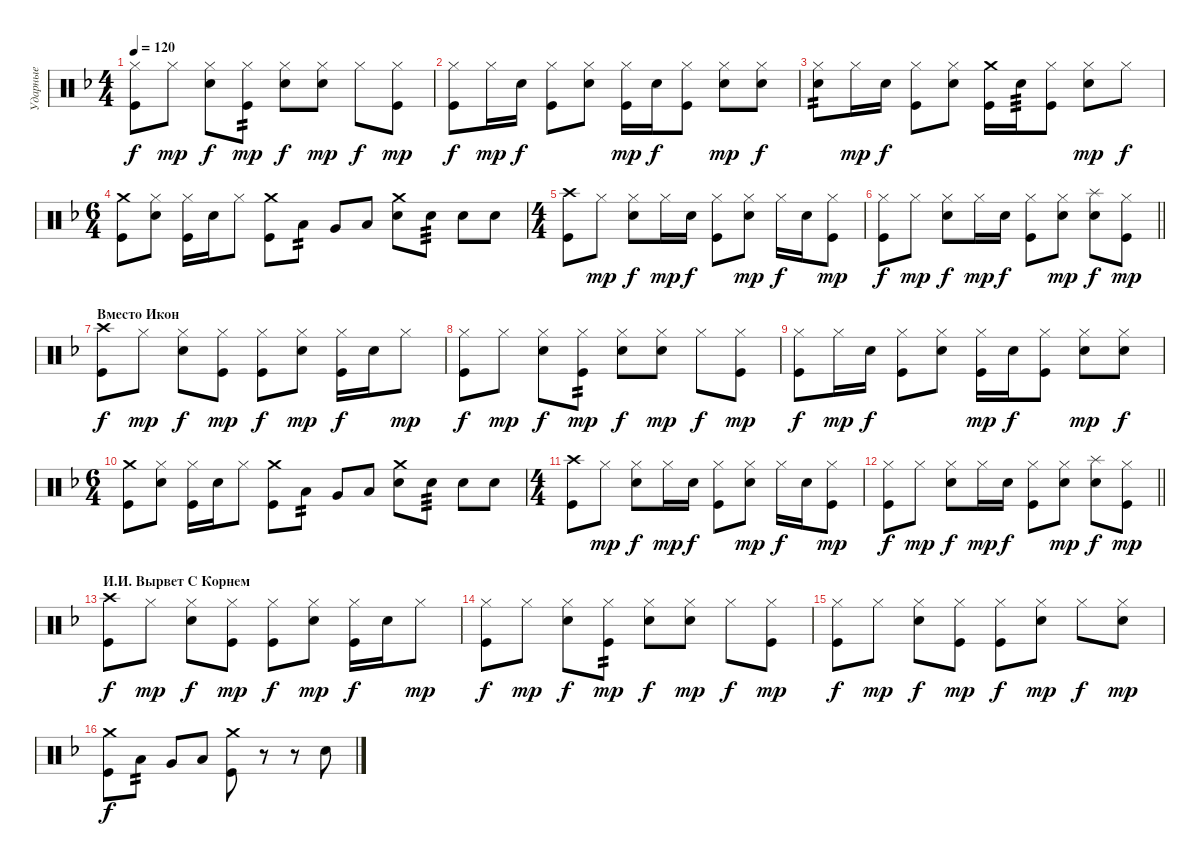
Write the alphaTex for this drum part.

\track ("Ударные" "Ударные") {instrument percussion}
\staff {score}
\articulation defaults
\ts (4 4)
\tempo 120
\clef neutral
\ks dminor
("Hi-Hat (closed)" "Kick (hit)").8{dy f} "Hi-Hat (closed)".8{dy mp} ("Hi-Hat (closed)" "Snare (hit) 2").8{dy f} ("Hi-Hat (closed)" "Kick (hit)").8{tp 2 dy mp} ("Hi-Hat (closed)" "Snare (hit) 2").8{dy f} ("Hi-Hat (closed)" "Snare (hit) 2").8{dy mp} "Hi-Hat (closed)".8{dy f} ("Hi-Hat (closed)" "Kick (hit)").8{dy mp} |
("Hi-Hat (closed)" "Kick (hit)").8{dy f} "Hi-Hat (closed)".16{dy mp} "Snare (hit) 2".16{dy f} ("Hi-Hat (closed)" "Kick (hit)").8 ("Hi-Hat (closed)" "Snare (hit) 2").8 ("Hi-Hat (closed)" "Kick (hit)").16{dy mp} "Snare (hit) 2".16{dy f} ("Hi-Hat (closed)" "Kick (hit)").8 ("Hi-Hat (closed)" "Snare (hit) 2").8{dy mp} ("Hi-Hat (closed)" "Snare (hit) 2").8{dy f} |
("Hi-Hat (closed)" "Snare (hit) 2").8{tp 2} "Hi-Hat (closed)".16{dy mp} "Snare (hit) 2".16{dy f} ("Hi-Hat (closed)" "Kick (hit)").8 ("Hi-Hat (closed)" "Snare (hit) 2").8 ("Crash medium (hit)" "Kick (hit)").16 "Snare (hit) 2".16{tp 3} ("Hi-Hat (closed)" "Kick (hit)").8 ("Hi-Hat (closed)" "Snare (hit) 2").8{dy mp} "Hi-Hat (closed)".8{dy f} |
\ts (6 4)
("Crash medium (hit)" "Kick (hit)").8 ("Hi-Hat (closed)" "Snare (hit) 2").8 ("Hi-Hat (closed)" "Kick (hit)").16 "Snare (hit) 2".16 "Hi-Hat (closed)".8 ("Crash medium (hit)" "Kick (hit)").8 "Low Tom (hit)".8{tp 2} "Very Low Tom (hit)".8 "Low Floor Tom (hit)".8 ("Crash medium (hit)" "Snare (hit) 2").8 "Snare (hit) 2".8{tp 3} "Snare (hit) 2".8 "Snare (hit) 2".8 |
\ts (4 4)
("Crash high (hit)" "Kick (hit)").8 "Hi-Hat (closed)".8{dy mp} ("Hi-Hat (closed)" "Snare (hit) 2").8{dy f} "Hi-Hat (closed)".16{dy mp} "Snare (hit) 2".16{dy f} ("Hi-Hat (closed)" "Kick (hit)").8 ("Hi-Hat (closed)" "Snare (hit) 2").8{dy mp} "Hi-Hat (closed)".16{dy f} "Snare (hit) 2".16 ("Hi-Hat (closed)" "Kick (hit)").8{dy mp} |
\barLineRight lightlight
("Hi-Hat (closed)" "Kick (hit)").8{dy f} "Hi-Hat (closed)".8{dy mp} ("Hi-Hat (closed)" "Snare (hit) 2").8{dy f} "Hi-Hat (closed)".16{dy mp} "Snare (hit) 2".16{dy f} ("Hi-Hat (closed)" "Kick (hit)").8 ("Hi-Hat (closed)" "Snare (hit) 2").8{dy mp} ("Splash (hit)" "Snare (hit) 2").8{dy f} ("Hi-Hat (closed)" "Kick (hit)").8{dy mp} |
\section ("" "Вместо Икон")
("Crash high (hit)" "Kick (hit)").8{dy f} "Hi-Hat (closed)".8{dy mp} ("Hi-Hat (closed)" "Snare (hit) 2").8{dy f} ("Hi-Hat (closed)" "Kick (hit)").8{dy mp} ("Hi-Hat (closed)" "Kick (hit)").8{dy f} ("Hi-Hat (closed)" "Snare (hit) 2").8{dy mp} ("Hi-Hat (closed)" "Kick (hit)").16{dy f} "Snare (hit) 2".16 "Hi-Hat (closed)".8{dy mp} |
("Hi-Hat (closed)" "Kick (hit)").8{dy f} "Hi-Hat (closed)".8{dy mp} ("Hi-Hat (closed)" "Snare (hit) 2").8{dy f} ("Hi-Hat (closed)" "Kick (hit)").8{tp 2 dy mp} ("Hi-Hat (closed)" "Snare (hit) 2").8{dy f} ("Hi-Hat (closed)" "Snare (hit) 2").8{dy mp} "Hi-Hat (closed)".8{dy f} ("Hi-Hat (closed)" "Kick (hit)").8{dy mp} |
("Hi-Hat (closed)" "Kick (hit)").8{dy f} "Hi-Hat (closed)".16{dy mp} "Snare (hit) 2".16{dy f} ("Hi-Hat (closed)" "Kick (hit)").8 ("Hi-Hat (closed)" "Snare (hit) 2").8 ("Hi-Hat (closed)" "Kick (hit)").16{dy mp} "Snare (hit) 2".16{dy f} ("Hi-Hat (closed)" "Kick (hit)").8 ("Hi-Hat (closed)" "Snare (hit) 2").8{dy mp} ("Hi-Hat (closed)" "Snare (hit) 2").8{dy f} |
\ts (6 4)
("Crash medium (hit)" "Kick (hit)").8 ("Hi-Hat (closed)" "Snare (hit) 2").8 ("Hi-Hat (closed)" "Kick (hit)").16 "Snare (hit) 2".16 "Hi-Hat (closed)".8 ("Crash medium (hit)" "Kick (hit)").8 "Low Tom (hit)".8{tp 2} "Very Low Tom (hit)".8 "Low Floor Tom (hit)".8 ("Crash medium (hit)" "Snare (hit) 2").8 "Snare (hit) 2".8{tp 3} "Snare (hit) 2".8 "Snare (hit) 2".8 |
\ts (4 4)
("Crash high (hit)" "Kick (hit)").8 "Hi-Hat (closed)".8{dy mp} ("Hi-Hat (closed)" "Snare (hit) 2").8{dy f} "Hi-Hat (closed)".16{dy mp} "Snare (hit) 2".16{dy f} ("Hi-Hat (closed)" "Kick (hit)").8 ("Hi-Hat (closed)" "Snare (hit) 2").8{dy mp} "Hi-Hat (closed)".16{dy f} "Snare (hit) 2".16 ("Hi-Hat (closed)" "Kick (hit)").8{dy mp} |
\barLineRight lightlight
("Hi-Hat (closed)" "Kick (hit)").8{dy f} "Hi-Hat (closed)".8{dy mp} ("Hi-Hat (closed)" "Snare (hit) 2").8{dy f} "Hi-Hat (closed)".16{dy mp} "Snare (hit) 2".16{dy f} ("Hi-Hat (closed)" "Kick (hit)").8 ("Hi-Hat (closed)" "Snare (hit) 2").8{dy mp} ("Splash (hit)" "Snare (hit) 2").8{dy f} ("Hi-Hat (closed)" "Kick (hit)").8{dy mp} |
\section ("" "И.И. Вырвет С Корнем")
("Crash high (hit)" "Kick (hit)").8{dy f} "Hi-Hat (closed)".8{dy mp} ("Hi-Hat (closed)" "Snare (hit) 2").8{dy f} ("Hi-Hat (closed)" "Kick (hit)").8{dy mp} ("Hi-Hat (closed)" "Kick (hit)").8{dy f} ("Hi-Hat (closed)" "Snare (hit) 2").8{dy mp} ("Hi-Hat (closed)" "Kick (hit)").16{dy f} "Snare (hit) 2".16 "Hi-Hat (closed)".8{dy mp} |
("Hi-Hat (closed)" "Kick (hit)").8{dy f} "Hi-Hat (closed)".8{dy mp} ("Hi-Hat (closed)" "Snare (hit) 2").8{dy f} ("Hi-Hat (closed)" "Kick (hit)").8{tp 2 dy mp} ("Hi-Hat (closed)" "Snare (hit) 2").8{dy f} ("Hi-Hat (closed)" "Snare (hit) 2").8{dy mp} "Hi-Hat (closed)".8{dy f} ("Hi-Hat (closed)" "Kick (hit)").8{dy mp} |
("Hi-Hat (closed)" "Kick (hit)").8{dy f} "Hi-Hat (closed)".8{dy mp} ("Hi-Hat (closed)" "Snare (hit) 2").8{dy f} ("Hi-Hat (closed)" "Kick (hit)").8{dy mp} ("Hi-Hat (closed)" "Kick (hit)").8{dy f} ("Hi-Hat (closed)" "Snare (hit) 2").8{dy mp} "Hi-Hat (closed)".8{dy f} ("Hi-Hat (closed)" "Snare (hit) 2").8{dy mp} |
("Crash medium (hit)" "Kick (hit)").8{dy f} "Low Tom (hit)".8{tp 2} "Very Low Tom (hit)".8 "Low Floor Tom (hit)".8 ("Crash medium (hit)" "Kick (hit)").8 r.8 r.8 "Snare (hit) 2".8
